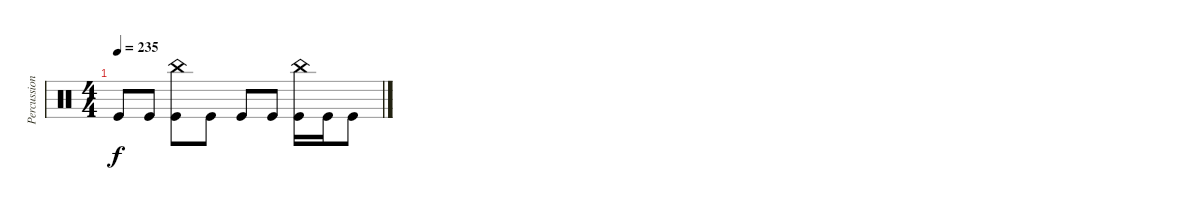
\track ("Percussion" "Percussion") {instrument percussion}
\staff {score}
\articulation defaults
\ts (4 4)
\tempo 235
\clef neutral
\ks c "Kick (hit)".8{dy f} "Kick (hit)".8
("Kick (hit)" "China (hit)").8 "Kick (hit)".8 "Kick (hit)".8 "Kick (hit)".8 ("Kick (hit)" "China (hit)").16 "Kick (hit)".16 "Kick (hit)".8
